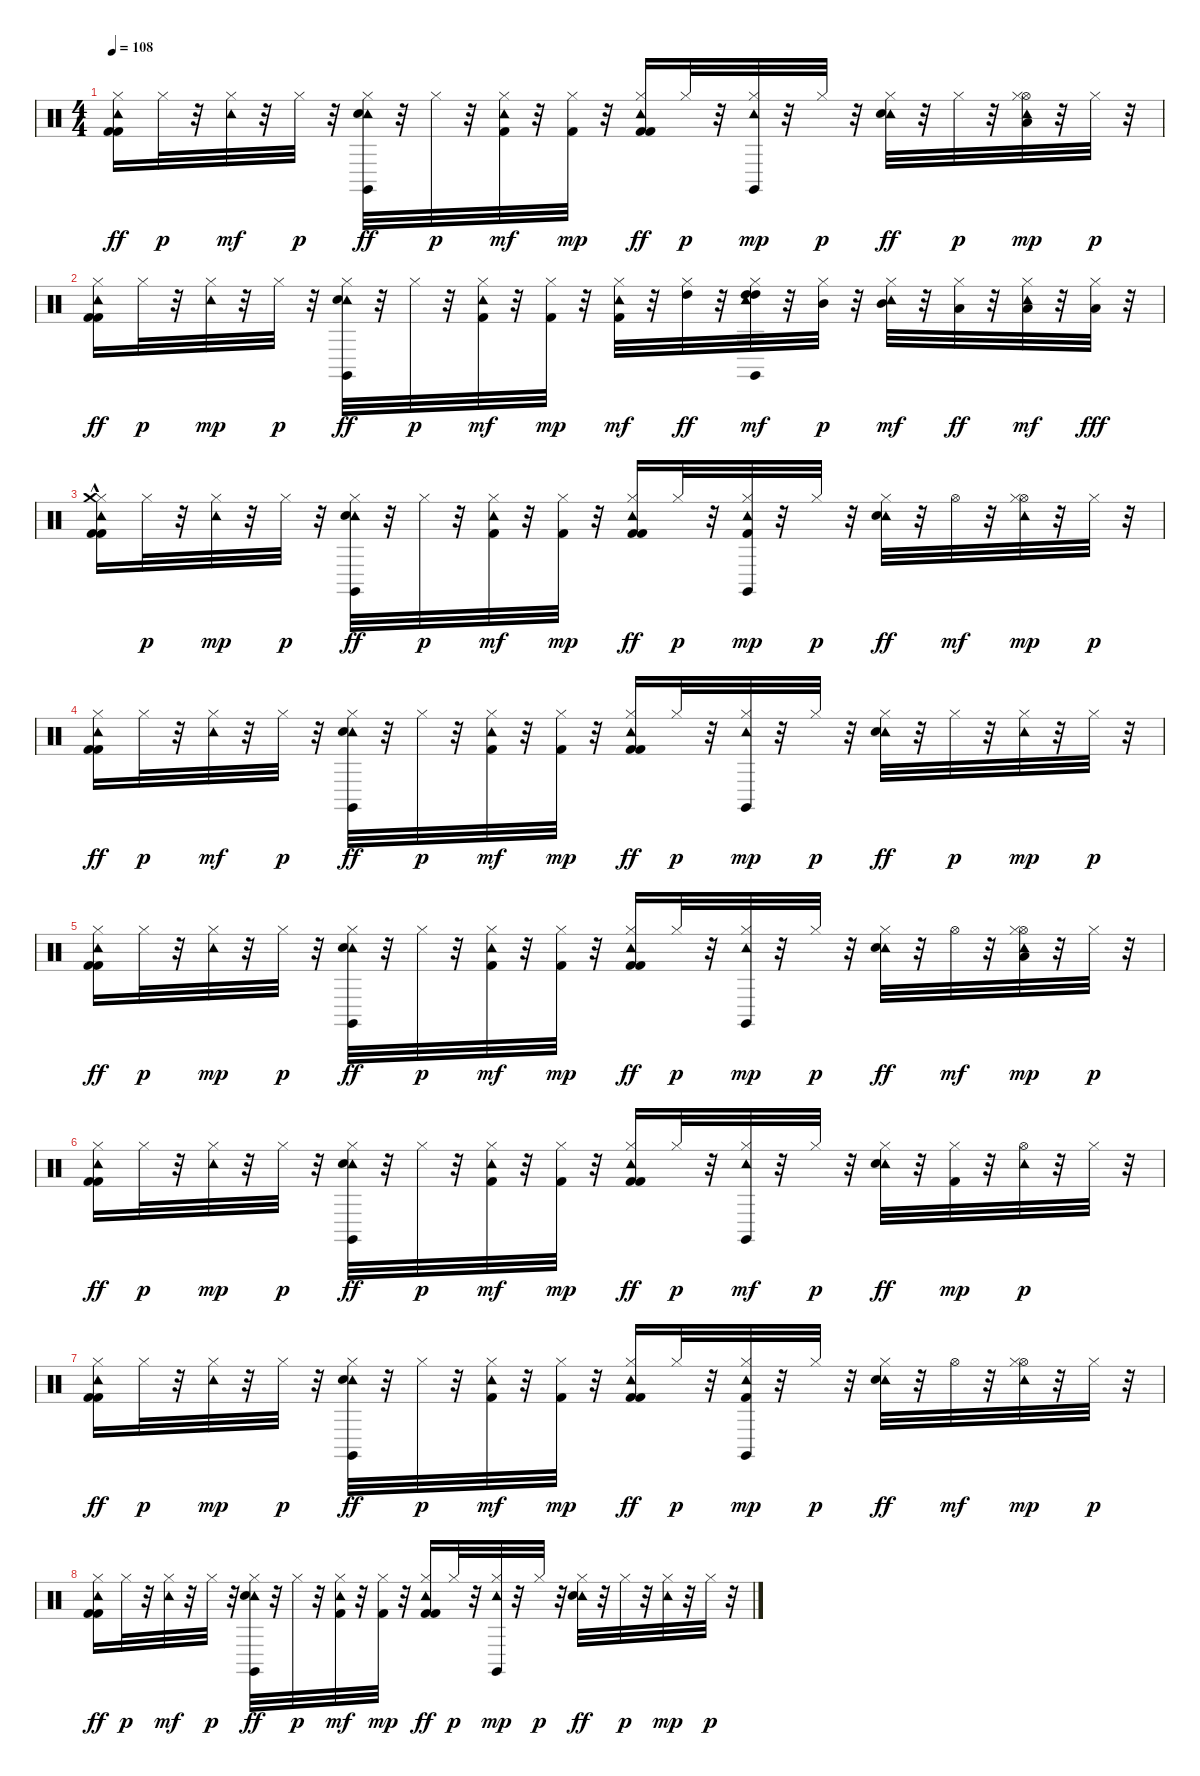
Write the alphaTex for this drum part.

\track "" {instrument percussion}
\staff {score}
\articulation defaults
\ts (4 4)
\tempo 108
\clef neutral
\ks c
("Tambourine (hit)" "Kick (hit) 2" "Hi-Hat (closed)" "Kick (hit) 2").16{dy ff} "Hi-Hat (closed)".32{dy p} r.32 ("Tambourine (hit)" "Hi-Hat (closed)").32{dy mf} r.32 "Hi-Hat (closed)".32{dy p} r.32 ("Tambourine (hit)" "Claves (hit)" "Hi-Hat (closed)" "Snare (hit) 2").32{dy ff} r.32 "Hi-Hat (closed)".32{dy p} r.32 ("Tambourine (hit)" "Kick (hit) 2" "Hi-Hat (closed)").32{dy mf} r.32 ("Hi-Hat (closed)" "Kick (hit) 2").32{dy mp} r.32 ("Tambourine (hit)" "Kick (hit) 2" "Hi-Hat (closed)" "Kick (hit) 2").16{dy ff} "Hi-Hat (closed)".32{dy p} r.32 ("Tambourine (hit)" "Claves (hit)" "Hi-Hat (closed)").32{dy mp} r.32 "Hi-Hat (closed)".32{dy p} r.32 ("Tambourine (hit)" "Hi-Hat (closed)" "Snare (hit) 2").32{dy ff} r.32 "Hi-Hat (closed)".32{dy p} r.32 ("Tambourine (hit)" "Hi-Hat (open)" "Low Tom (hit)" "Hi-Hat (closed)").32{dy mp} r.32 "Hi-Hat (closed)".32{dy p} r.32 |
("Kick (hit) 2" "Tambourine (hit)" "Hi-Hat (closed)" "Kick (hit) 2").16{dy ff} "Hi-Hat (closed)".32{dy p} r.32 ("Hi-Hat (closed)" "Tambourine (hit)").32{dy mp} r.32 "Hi-Hat (closed)".32{dy p} r.32 ("Tambourine (hit)" "Claves (hit)" "Hi-Hat (closed)" "Snare (hit) 2").32{dy ff} r.32 "Hi-Hat (closed)".32{dy p} r.32 ("Kick (hit) 2" "Tambourine (hit)" "Hi-Hat (closed)").32{dy mf} r.32 ("Hi-Hat (closed)" "Kick (hit) 2").32{dy mp} r.32 ("Tambourine (hit)" "Kick (hit) 2" "Hi-Hat (closed)").32{dy mf} r.32 ("Hi-Hat (closed)" "High Tom (hit)").32{dy ff} r.32 ("Tambourine (hit)" "Claves (hit)" "Hi-Hat (closed)" "High Tom (hit)" "High Tom (hit)").32{dy mf} r.32 ("Hi-Hat (closed)" "Mid Tom (hit)").32{dy p} r.32 ("Tambourine (hit)" "Hi-Hat (closed)" "Mid Tom (hit)").32{dy mf} r.32 ("Hi-Hat (closed)" "Low Tom (hit)").32{dy ff} r.32 ("Tambourine (hit)" "Hi-Hat (closed)" "Low Tom (hit)").32{dy mf} r.32 ("Hi-Hat (closed)" "Low Tom (hit)").32{dy fff} r.32 |
("Tambourine (hit)" "Kick (hit) 2" "Hi-Hat (closed)" "Kick (hit) 2" "Crash medium (hit)"{hac}).16 "Hi-Hat (closed)".32{dy p} r.32 ("Hi-Hat (closed)" "Tambourine (hit)").32{dy mp} r.32 "Hi-Hat (closed)".32{dy p} r.32 ("Tambourine (hit)" "Claves (hit)" "Hi-Hat (closed)" "Snare (hit) 2").32{dy ff} r.32 "Hi-Hat (closed)".32{dy p} r.32 ("Tambourine (hit)" "Kick (hit) 2" "Hi-Hat (closed)").32{dy mf} r.32 ("Hi-Hat (closed)" "Kick (hit) 2").32{dy mp} r.32 ("Kick (hit) 2" "Tambourine (hit)" "Hi-Hat (closed)" "Kick (hit) 2").16{dy ff} "Hi-Hat (closed)".32{dy p} r.32 ("Tambourine (hit)" "Kick (hit) 2" "Claves (hit)" "Hi-Hat (closed)").32{dy mp} r.32 "Hi-Hat (closed)".32{dy p} r.32 ("Tambourine (hit)" "Hi-Hat (closed)" "Snare (hit) 2").32{dy ff} r.32 "Hi-Hat (open)".32{dy mf} r.32 ("Tambourine (hit)" "Hi-Hat (open)" "Hi-Hat (closed)").32{dy mp} r.32 "Hi-Hat (closed)".32{dy p} r.32 |
("Tambourine (hit)" "Kick (hit) 2" "Hi-Hat (closed)" "Kick (hit) 2").16{dy ff} "Hi-Hat (closed)".32{dy p} r.32 ("Tambourine (hit)" "Hi-Hat (closed)").32{dy mf} r.32 "Hi-Hat (closed)".32{dy p} r.32 ("Tambourine (hit)" "Claves (hit)" "Hi-Hat (closed)" "Snare (hit) 2").32{dy ff} r.32 "Hi-Hat (closed)".32{dy p} r.32 ("Tambourine (hit)" "Kick (hit) 2" "Hi-Hat (closed)").32{dy mf} r.32 ("Hi-Hat (closed)" "Kick (hit) 2").32{dy mp} r.32 ("Tambourine (hit)" "Kick (hit) 2" "Hi-Hat (closed)" "Kick (hit) 2").16{dy ff} "Hi-Hat (closed)".32{dy p} r.32 ("Tambourine (hit)" "Claves (hit)" "Hi-Hat (closed)").32{dy mp} r.32 "Hi-Hat (closed)".32{dy p} r.32 ("Tambourine (hit)" "Hi-Hat (closed)" "Snare (hit) 2").32{dy ff} r.32 "Hi-Hat (closed)".32{dy p} r.32 ("Tambourine (hit)" "Hi-Hat (closed)").32{dy mp} r.32 "Hi-Hat (closed)".32{dy p} r.32 |
("Kick (hit) 2" "Tambourine (hit)" "Hi-Hat (closed)" "Kick (hit) 2").16{dy ff} "Hi-Hat (closed)".32{dy p} r.32 ("Hi-Hat (closed)" "Tambourine (hit)").32{dy mp} r.32 "Hi-Hat (closed)".32{dy p} r.32 ("Tambourine (hit)" "Claves (hit)" "Hi-Hat (closed)" "Snare (hit) 2").32{dy ff} r.32 "Hi-Hat (closed)".32{dy p} r.32 ("Kick (hit) 2" "Tambourine (hit)" "Hi-Hat (closed)").32{dy mf} r.32 ("Hi-Hat (closed)" "Kick (hit) 2").32{dy mp} r.32 ("Tambourine (hit)" "Kick (hit) 2" "Hi-Hat (closed)" "Kick (hit) 2").16{dy ff} "Hi-Hat (closed)".32{dy p} r.32 ("Tambourine (hit)" "Claves (hit)" "Hi-Hat (closed)").32{dy mp} r.32 "Hi-Hat (closed)".32{dy p} r.32 ("Tambourine (hit)" "Hi-Hat (closed)" "Snare (hit) 2").32{dy ff} r.32 "Hi-Hat (open)".32{dy mf} r.32 ("Tambourine (hit)" "Hi-Hat (open)" "Low Tom (hit)" "Hi-Hat (closed)").32{dy mp} r.32 "Hi-Hat (closed)".32{dy p} r.32 |
("Kick (hit) 2" "Tambourine (hit)" "Hi-Hat (closed)" "Kick (hit) 2").16{dy ff} "Hi-Hat (closed)".32{dy p} r.32 ("Tambourine (hit)" "Hi-Hat (closed)").32{dy mp} r.32 "Hi-Hat (closed)".32{dy p} r.32 ("Tambourine (hit)" "Claves (hit)" "Hi-Hat (closed)" "Snare (hit) 2").32{dy ff} r.32 "Hi-Hat (closed)".32{dy p} r.32 ("Tambourine (hit)" "Kick (hit) 2" "Hi-Hat (closed)").32{dy mf} r.32 ("Hi-Hat (closed)" "Kick (hit) 2").32{dy mp} r.32 ("Kick (hit) 2" "Tambourine (hit)" "Hi-Hat (closed)" "Kick (hit) 2").16{dy ff} "Hi-Hat (closed)".32{dy p} r.32 ("Tambourine (hit)" "Claves (hit)" "Hi-Hat (closed)").32{dy mf} r.32 "Hi-Hat (closed)".32{dy p} r.32 ("Tambourine (hit)" "Hi-Hat (closed)" "Snare (hit) 2").32{dy ff} r.32 ("Hi-Hat (closed)" "Kick (hit) 2").32{dy mp} r.32 ("Tambourine (hit)" "Hi-Hat (open)").32{dy p} r.32 "Hi-Hat (closed)".32 r.32 |
("Tambourine (hit)" "Kick (hit) 2" "Hi-Hat (closed)" "Kick (hit) 2").16{dy ff} "Hi-Hat (closed)".32{dy p} r.32 ("Hi-Hat (closed)" "Tambourine (hit)").32{dy mp} r.32 "Hi-Hat (closed)".32{dy p} r.32 ("Tambourine (hit)" "Claves (hit)" "Hi-Hat (closed)" "Snare (hit) 2").32{dy ff} r.32 "Hi-Hat (closed)".32{dy p} r.32 ("Kick (hit) 2" "Tambourine (hit)" "Hi-Hat (closed)").32{dy mf} r.32 ("Hi-Hat (closed)" "Kick (hit) 2").32{dy mp} r.32 ("Kick (hit) 2" "Tambourine (hit)" "Hi-Hat (closed)" "Kick (hit) 2").16{dy ff} "Hi-Hat (closed)".32{dy p} r.32 ("Tambourine (hit)" "Claves (hit)" "Kick (hit) 2" "Hi-Hat (closed)").32{dy mp} r.32 "Hi-Hat (closed)".32{dy p} r.32 ("Tambourine (hit)" "Hi-Hat (closed)" "Snare (hit) 2").32{dy ff} r.32 "Hi-Hat (open)".32{dy mf} r.32 ("Tambourine (hit)" "Hi-Hat (open)" "Hi-Hat (closed)").32{dy mp} r.32 "Hi-Hat (closed)".32{dy p} r.32 |
("Tambourine (hit)" "Kick (hit) 2" "Hi-Hat (closed)" "Kick (hit) 2").16{dy ff} "Hi-Hat (closed)".32{dy p} r.32 ("Tambourine (hit)" "Hi-Hat (closed)").32{dy mf} r.32 "Hi-Hat (closed)".32{dy p} r.32 ("Tambourine (hit)" "Claves (hit)" "Hi-Hat (closed)" "Snare (hit) 2").32{dy ff} r.32 "Hi-Hat (closed)".32{dy p} r.32 ("Kick (hit) 2" "Tambourine (hit)" "Hi-Hat (closed)").32{dy mf} r.32 ("Hi-Hat (closed)" "Kick (hit) 2").32{dy mp} r.32 ("Kick (hit) 2" "Tambourine (hit)" "Hi-Hat (closed)" "Kick (hit) 2").16{dy ff} "Hi-Hat (closed)".32{dy p} r.32 ("Tambourine (hit)" "Claves (hit)" "Hi-Hat (closed)").32{dy mp} r.32 "Hi-Hat (closed)".32{dy p} r.32 ("Tambourine (hit)" "Hi-Hat (closed)" "Snare (hit) 2").32{dy ff} r.32 "Hi-Hat (closed)".32{dy p} r.32 ("Tambourine (hit)" "Hi-Hat (closed)").32{dy mp} r.32 "Hi-Hat (closed)".32{dy p} r.32
